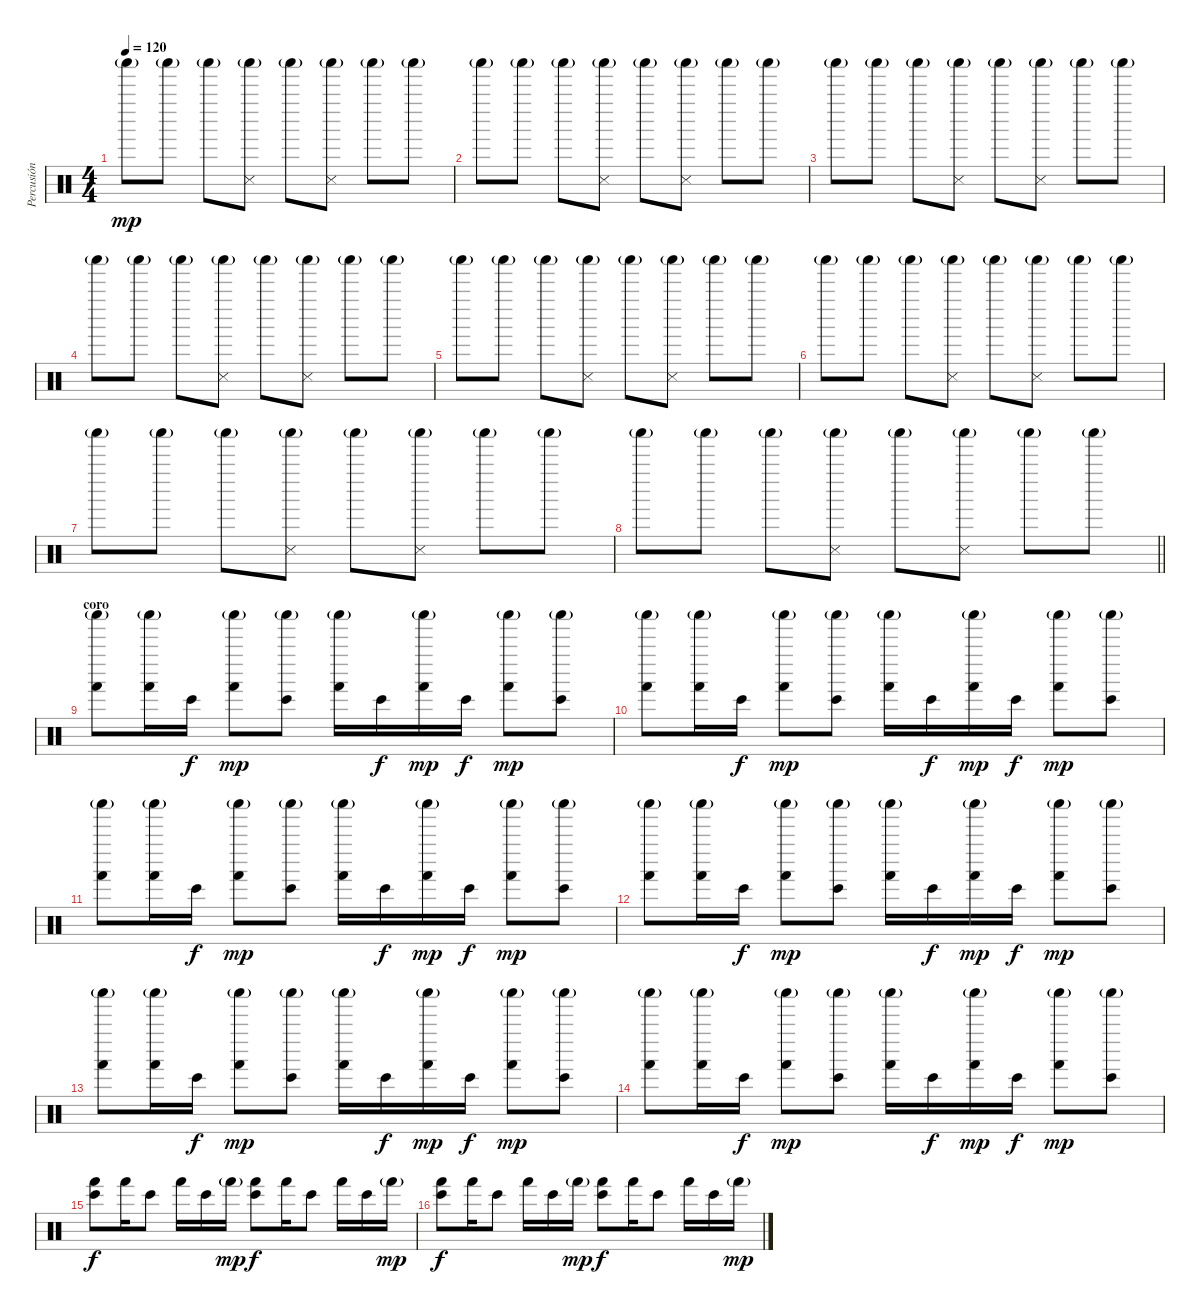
\track ("Percusión" "Percusión") {instrument percussion}
\staff {score}
\articulation defaults
\ts (4 4)
\tempo 120
\clef neutral
\ks c "Shaker (hit)"{g}.8{dy mp} "Shaker (hit)"{g}.8 "Shaker (hit)"{g}.8
("Snare (side stick) 3" "Shaker (hit)"{g}).8 "Shaker (hit)"{g}.8 ("Snare (side stick) 3" "Shaker (hit)"{g}).8 "Shaker (hit)"{g}.8 "Shaker (hit)"{g}.8 |
"Shaker (hit)"{g}.8 "Shaker (hit)"{g}.8 "Shaker (hit)"{g}.8 ("Snare (side stick) 3" "Shaker (hit)"{g}).8 "Shaker (hit)"{g}.8 ("Snare (side stick) 3" "Shaker (hit)"{g}).8 "Shaker (hit)"{g}.8 "Shaker (hit)"{g}.8 |
"Shaker (hit)"{g}.8 "Shaker (hit)"{g}.8 "Shaker (hit)"{g}.8 ("Snare (side stick) 3" "Shaker (hit)"{g}).8 "Shaker (hit)"{g}.8 ("Snare (side stick) 3" "Shaker (hit)"{g}).8 "Shaker (hit)"{g}.8 "Shaker (hit)"{g}.8 |
"Shaker (hit)"{g}.8 "Shaker (hit)"{g}.8 "Shaker (hit)"{g}.8 ("Snare (side stick) 3" "Shaker (hit)"{g}).8 "Shaker (hit)"{g}.8 ("Snare (side stick) 3" "Shaker (hit)"{g}).8 "Shaker (hit)"{g}.8 "Shaker (hit)"{g}.8 |
"Shaker (hit)"{g}.8 "Shaker (hit)"{g}.8 "Shaker (hit)"{g}.8 ("Snare (side stick) 3" "Shaker (hit)"{g}).8 "Shaker (hit)"{g}.8 ("Snare (side stick) 3" "Shaker (hit)"{g}).8 "Shaker (hit)"{g}.8 "Shaker (hit)"{g}.8 |
"Shaker (hit)"{g}.8 "Shaker (hit)"{g}.8 "Shaker (hit)"{g}.8 ("Snare (side stick) 3" "Shaker (hit)"{g}).8 "Shaker (hit)"{g}.8 ("Snare (side stick) 3" "Shaker (hit)"{g}).8 "Shaker (hit)"{g}.8 "Shaker (hit)"{g}.8 |
"Shaker (hit)"{g}.8 "Shaker (hit)"{g}.8 "Shaker (hit)"{g}.8 ("Snare (side stick) 3" "Shaker (hit)"{g}).8 "Shaker (hit)"{g}.8 ("Snare (side stick) 3" "Shaker (hit)"{g}).8 "Shaker (hit)"{g}.8 "Shaker (hit)"{g}.8 |
\barLineRight lightlight "Shaker (hit)"{g}.8 "Shaker (hit)"{g}.8 "Shaker (hit)"{g}.8
("Snare (side stick) 3" "Shaker (hit)"{g}).8 "Shaker (hit)"{g}.8 ("Snare (side stick) 3" "Shaker (hit)"{g}).8 "Shaker (hit)"{g}.8 "Shaker (hit)"{g}.8 |
\section ("" "coro")
("Hand (hit)" "Shaker (hit)"{g}).8 ("Hand (hit)" "Shaker (hit)"{g}).16 "Bongo High (hit)".16{dy f} ("Hand (hit)" "Shaker (hit)"{g}).8{dy mp} ("Bongo High (hit)" "Shaker (hit)"{g}).8 ("Hand (hit)" "Shaker (hit)"{g}).16 "Bongo High (hit)".16{dy f} ("Hand (hit)" "Shaker (hit)"{g}).16{dy mp} "Bongo High (hit)".16{dy f} ("Hand (hit)" "Shaker (hit)"{g}).8{dy mp} ("Bongo High (hit)" "Shaker (hit)"{g}).8 |
("Hand (hit)" "Shaker (hit)"{g}).8 ("Hand (hit)" "Shaker (hit)"{g}).16 "Bongo High (hit)".16{dy f} ("Hand (hit)" "Shaker (hit)"{g}).8{dy mp} ("Bongo High (hit)" "Shaker (hit)"{g}).8 ("Hand (hit)" "Shaker (hit)"{g}).16 "Bongo High (hit)".16{dy f} ("Hand (hit)" "Shaker (hit)"{g}).16{dy mp} "Bongo High (hit)".16{dy f} ("Hand (hit)" "Shaker (hit)"{g}).8{dy mp} ("Bongo High (hit)" "Shaker (hit)"{g}).8 |
("Hand (hit)" "Shaker (hit)"{g}).8 ("Hand (hit)" "Shaker (hit)"{g}).16 "Bongo High (hit)".16{dy f} ("Hand (hit)" "Shaker (hit)"{g}).8{dy mp} ("Bongo High (hit)" "Shaker (hit)"{g}).8 ("Hand (hit)" "Shaker (hit)"{g}).16 "Bongo High (hit)".16{dy f} ("Hand (hit)" "Shaker (hit)"{g}).16{dy mp} "Bongo High (hit)".16{dy f} ("Hand (hit)" "Shaker (hit)"{g}).8{dy mp} ("Bongo High (hit)" "Shaker (hit)"{g}).8 |
("Hand (hit)" "Shaker (hit)"{g}).8 ("Hand (hit)" "Shaker (hit)"{g}).16 "Bongo High (hit)".16{dy f} ("Hand (hit)" "Shaker (hit)"{g}).8{dy mp} ("Bongo High (hit)" "Shaker (hit)"{g}).8 ("Hand (hit)" "Shaker (hit)"{g}).16 "Bongo High (hit)".16{dy f} ("Hand (hit)" "Shaker (hit)"{g}).16{dy mp} "Bongo High (hit)".16{dy f} ("Hand (hit)" "Shaker (hit)"{g}).8{dy mp} ("Bongo High (hit)" "Shaker (hit)"{g}).8 |
("Hand (hit)" "Shaker (hit)"{g}).8 ("Hand (hit)" "Shaker (hit)"{g}).16 "Bongo High (hit)".16{dy f} ("Hand (hit)" "Shaker (hit)"{g}).8{dy mp} ("Bongo High (hit)" "Shaker (hit)"{g}).8 ("Hand (hit)" "Shaker (hit)"{g}).16 "Bongo High (hit)".16{dy f} ("Hand (hit)" "Shaker (hit)"{g}).16{dy mp} "Bongo High (hit)".16{dy f} ("Hand (hit)" "Shaker (hit)"{g}).8{dy mp} ("Bongo High (hit)" "Shaker (hit)"{g}).8 |
("Hand (hit)" "Shaker (hit)"{g}).8 ("Hand (hit)" "Shaker (hit)"{g}).16 "Bongo High (hit)".16{dy f} ("Hand (hit)" "Shaker (hit)"{g}).8{dy mp} ("Bongo High (hit)" "Shaker (hit)"{g}).8 ("Hand (hit)" "Shaker (hit)"{g}).16 "Bongo High (hit)".16{dy f} ("Hand (hit)" "Shaker (hit)"{g}).16{dy mp} "Bongo High (hit)".16{dy f} ("Hand (hit)" "Shaker (hit)"{g}).8{dy mp} ("Bongo High (hit)" "Shaker (hit)"{g}).8 |
("Hand (hit)" "Bongo High (hit)").8{dy f} "Hand (hit)".16 "Bongo High (hit)".8 "Hand (hit)".16 "Bongo High (hit)".16 "Hand (hit)"{g}.16{dy mp} ("Hand (hit)" "Bongo High (hit)").8{dy f} "Hand (hit)".16 "Bongo High (hit)".8 "Hand (hit)".16 "Bongo High (hit)".16 "Hand (hit)"{g}.16{dy mp} |
("Hand (hit)" "Bongo High (hit)").8{dy f} "Hand (hit)".16 "Bongo High (hit)".8 "Hand (hit)".16 "Bongo High (hit)".16 "Hand (hit)"{g}.16{dy mp} ("Hand (hit)" "Bongo High (hit)").8{dy f} "Hand (hit)".16 "Bongo High (hit)".8 "Hand (hit)".16 "Bongo High (hit)".16 "Hand (hit)"{g}.16{dy mp}
